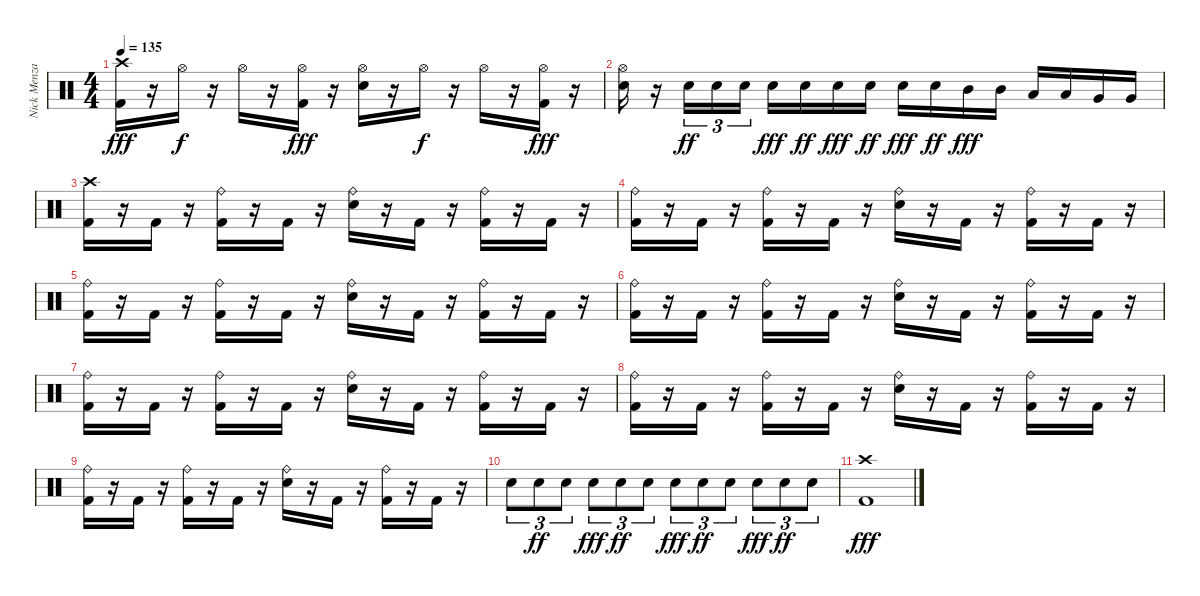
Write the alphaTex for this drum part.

\track ("Nick Menza" "Nick Menza") {instrument percussion}
\staff {score}
\articulation defaults
\ts (4 4)
\tempo 135
\clef neutral
\ks c
("Kick (hit) 2" "Crash high (hit)").16{dy fff} r.16 "Hi-Hat (open)".16{dy f} r.16 "Hi-Hat (open)".16 r.16 ("Kick (hit) 2" "Hi-Hat (open)").16{dy fff} r.16 ("Electric Snare (hit)" "Hi-Hat (open)").16 r.16 "Hi-Hat (open)".16{dy f} r.16 "Hi-Hat (open)".16 r.16 ("Kick (hit) 2" "Hi-Hat (open)").16{dy fff} r.16 |
("Electric Snare (hit)" "Hi-Hat (open)").16 r.16 "Electric Snare (hit)".16{tu (3 2) dy ff} "Electric Snare (hit)".16{tu (3 2)} "Electric Snare (hit)".16{tu (3 2)} "Electric Snare (hit)".16{dy fff} "Electric Snare (hit)".16{dy ff} "Electric Snare (hit)".16{dy fff} "Electric Snare (hit)".16{dy ff} "Electric Snare (hit)".16{dy fff} "Electric Snare (hit)".16{dy ff} "Mid Tom (hit)".16{dy fff} "Mid Tom (hit)".16 "Low Tom (hit)".16 "Low Tom (hit)".16 "Very Low Tom (hit)".16 "Very Low Tom (hit)".16 |
("Kick (hit) 2" "Crash high (hit)").16 r.16 "Kick (hit) 2".16 r.16 ("Kick (hit) 2" "Ride (bell)").16 r.16 "Kick (hit) 2".16 r.16 ("Electric Snare (hit)" "Ride (bell)").16 r.16 "Kick (hit) 2".16 r.16 ("Kick (hit) 2" "Ride (bell)").16 r.16 "Kick (hit) 2".16 r.16 |
("Kick (hit) 2" "Ride (bell)").16 r.16 "Kick (hit) 2".16 r.16 ("Kick (hit) 2" "Ride (bell)").16 r.16 "Kick (hit) 2".16 r.16 ("Electric Snare (hit)" "Ride (bell)").16 r.16 "Kick (hit) 2".16 r.16 ("Kick (hit) 2" "Ride (bell)").16 r.16 "Kick (hit) 2".16 r.16 |
("Kick (hit) 2" "Ride (bell)").16 r.16 "Kick (hit) 2".16 r.16 ("Kick (hit) 2" "Ride (bell)").16 r.16 "Kick (hit) 2".16 r.16 ("Electric Snare (hit)" "Ride (bell)").16 r.16 "Kick (hit) 2".16 r.16 ("Kick (hit) 2" "Ride (bell)").16 r.16 "Kick (hit) 2".16 r.16 |
("Kick (hit) 2" "Ride (bell)").16 r.16 "Kick (hit) 2".16 r.16 ("Kick (hit) 2" "Ride (bell)").16 r.16 "Kick (hit) 2".16 r.16 ("Electric Snare (hit)" "Ride (bell)").16 r.16 "Kick (hit) 2".16 r.16 ("Kick (hit) 2" "Ride (bell)").16 r.16 "Kick (hit) 2".16 r.16 |
("Kick (hit) 2" "Ride (bell)").16 r.16 "Kick (hit) 2".16 r.16 ("Kick (hit) 2" "Ride (bell)").16 r.16 "Kick (hit) 2".16 r.16 ("Electric Snare (hit)" "Ride (bell)").16 r.16 "Kick (hit) 2".16 r.16 ("Kick (hit) 2" "Ride (bell)").16 r.16 "Kick (hit) 2".16 r.16 |
("Kick (hit) 2" "Ride (bell)").16 r.16 "Kick (hit) 2".16 r.16 ("Kick (hit) 2" "Ride (bell)").16 r.16 "Kick (hit) 2".16 r.16 ("Electric Snare (hit)" "Ride (bell)").16 r.16 "Kick (hit) 2".16 r.16 ("Kick (hit) 2" "Ride (bell)").16 r.16 "Kick (hit) 2".16 r.16 |
("Kick (hit) 2" "Ride (bell)").16 r.16 "Kick (hit) 2".16 r.16 ("Kick (hit) 2" "Ride (bell)").16 r.16 "Kick (hit) 2".16 r.16 ("Electric Snare (hit)" "Ride (bell)").16 r.16 "Kick (hit) 2".16 r.16 ("Kick (hit) 2" "Ride (bell)").16 r.16 "Kick (hit) 2".16 r.16 |
"Electric Snare (hit)".8{tu (3 2)} "Electric Snare (hit)".8{tu (3 2) dy ff} "Electric Snare (hit)".8{tu (3 2)} "Electric Snare (hit)".8{tu (3 2) dy fff} "Electric Snare (hit)".8{tu (3 2) dy ff} "Electric Snare (hit)".8{tu (3 2)} "Electric Snare (hit)".8{tu (3 2) dy fff} "Electric Snare (hit)".8{tu (3 2) dy ff} "Electric Snare (hit)".8{tu (3 2)} "Electric Snare (hit)".8{tu (3 2) dy fff} "Electric Snare (hit)".8{tu (3 2) dy ff} "Electric Snare (hit)".8{tu (3 2)} |
("Kick (hit) 2" "Crash high (hit)").1{dy fff}
